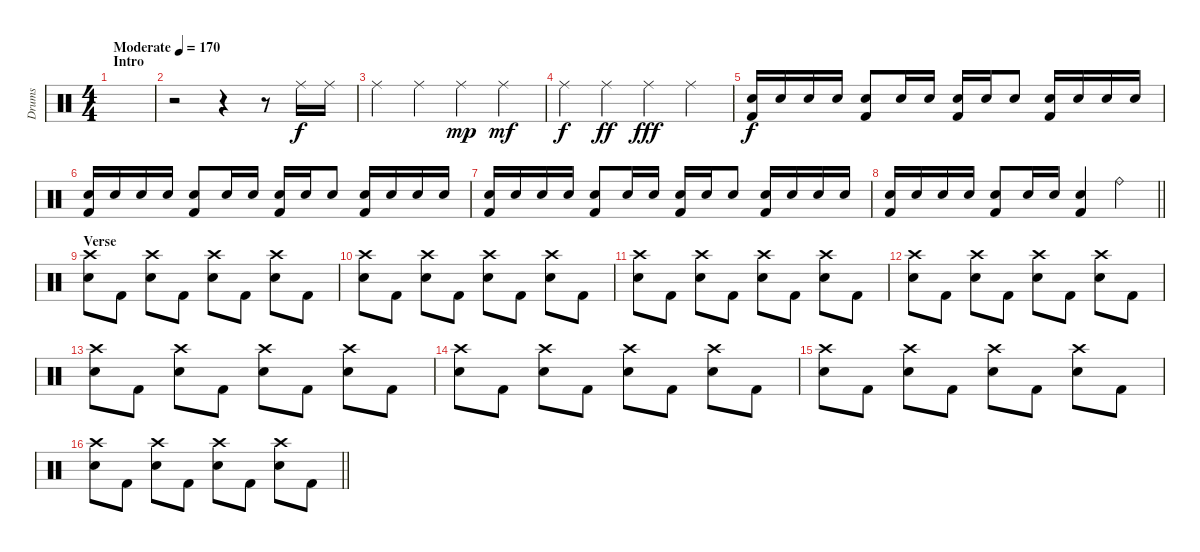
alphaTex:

\track ("Drums" "Drums") {instrument percussion}
\staff {score}
\articulation defaults
\ts (4 4)
\section ("" "Intro")
\tempo (170 "Moderate")
\clef neutral
\ks c
|
r.2 r.4 r.8 "Ride (middle)".16 "Ride (middle)".16 |
"Ride (middle)".4 "Ride (middle)".4 "Ride (middle)".4{dy mp} "Ride (middle)".4{dy mf} |
"Ride (middle)".4{dy f} "Ride (middle)".4{dy ff} "Ride (middle)".4{dy fff} "Ride (middle)".4 |
("Electric Snare (hit)" "Kick (hit) 2").16{dy f} "Electric Snare (hit)".16 "Electric Snare (hit)".16 "Electric Snare (hit)".16 ("Electric Snare (hit)" "Kick (hit) 2").8 "Electric Snare (hit)".16 "Electric Snare (hit)".16 ("Electric Snare (hit)" "Kick (hit) 2").16 "Electric Snare (hit)".16 "Electric Snare (hit)".8 ("Electric Snare (hit)" "Kick (hit) 2").16 "Electric Snare (hit)".16 "Electric Snare (hit)".16 "Electric Snare (hit)".16 |
("Electric Snare (hit)" "Kick (hit) 2").16 "Electric Snare (hit)".16 "Electric Snare (hit)".16 "Electric Snare (hit)".16 ("Electric Snare (hit)" "Kick (hit) 2").8 "Electric Snare (hit)".16 "Electric Snare (hit)".16 ("Electric Snare (hit)" "Kick (hit) 2").16 "Electric Snare (hit)".16 "Electric Snare (hit)".8 ("Electric Snare (hit)" "Kick (hit) 2").16 "Electric Snare (hit)".16 "Electric Snare (hit)".16 "Electric Snare (hit)".16 |
("Electric Snare (hit)" "Kick (hit) 2").16 "Electric Snare (hit)".16 "Electric Snare (hit)".16 "Electric Snare (hit)".16 ("Electric Snare (hit)" "Kick (hit) 2").8 "Electric Snare (hit)".16 "Electric Snare (hit)".16 ("Electric Snare (hit)" "Kick (hit) 2").16 "Electric Snare (hit)".16 "Electric Snare (hit)".8 ("Electric Snare (hit)" "Kick (hit) 2").16 "Electric Snare (hit)".16 "Electric Snare (hit)".16 "Electric Snare (hit)".16 |
\barLineRight lightlight
("Electric Snare (hit)" "Kick (hit) 2").16 "Electric Snare (hit)".16 "Electric Snare (hit)".16 "Electric Snare (hit)".16 ("Electric Snare (hit)" "Kick (hit) 2").8 "Electric Snare (hit)".16 "Electric Snare (hit)".16 ("Electric Snare (hit)" "Kick (hit) 2").4 "Ride (bell)".4 |
\section ("" "Verse")
("Electric Snare (hit)" "Crash high (hit)").8 "Kick (hit) 2".8 ("Electric Snare (hit)" "Crash high (hit)").8 "Kick (hit) 2".8 ("Electric Snare (hit)" "Crash high (hit)").8 "Kick (hit) 2".8 ("Electric Snare (hit)" "Crash high (hit)").8 "Kick (hit) 2".8 |
("Electric Snare (hit)" "Crash high (hit)").8 "Kick (hit) 2".8 ("Electric Snare (hit)" "Crash high (hit)").8 "Kick (hit) 2".8 ("Electric Snare (hit)" "Crash high (hit)").8 "Kick (hit) 2".8 ("Electric Snare (hit)" "Crash high (hit)").8 "Kick (hit) 2".8 |
("Electric Snare (hit)" "Crash high (hit)").8 "Kick (hit) 2".8 ("Electric Snare (hit)" "Crash high (hit)").8 "Kick (hit) 2".8 ("Electric Snare (hit)" "Crash high (hit)").8 "Kick (hit) 2".8 ("Electric Snare (hit)" "Crash high (hit)").8 "Kick (hit) 2".8 |
("Electric Snare (hit)" "Crash high (hit)").8 "Kick (hit) 2".8 ("Electric Snare (hit)" "Crash high (hit)").8 "Kick (hit) 2".8 ("Electric Snare (hit)" "Crash high (hit)").8 "Kick (hit) 2".8 ("Electric Snare (hit)" "Crash high (hit)").8 "Kick (hit) 2".8 |
("Electric Snare (hit)" "Crash high (hit)").8 "Kick (hit) 2".8 ("Electric Snare (hit)" "Crash high (hit)").8 "Kick (hit) 2".8 ("Electric Snare (hit)" "Crash high (hit)").8 "Kick (hit) 2".8 ("Electric Snare (hit)" "Crash high (hit)").8 "Kick (hit) 2".8 |
("Electric Snare (hit)" "Crash high (hit)").8 "Kick (hit) 2".8 ("Electric Snare (hit)" "Crash high (hit)").8 "Kick (hit) 2".8 ("Electric Snare (hit)" "Crash high (hit)").8 "Kick (hit) 2".8 ("Electric Snare (hit)" "Crash high (hit)").8 "Kick (hit) 2".8 |
("Electric Snare (hit)" "Crash high (hit)").8 "Kick (hit) 2".8 ("Electric Snare (hit)" "Crash high (hit)").8 "Kick (hit) 2".8 ("Electric Snare (hit)" "Crash high (hit)").8 "Kick (hit) 2".8 ("Electric Snare (hit)" "Crash high (hit)").8 "Kick (hit) 2".8 |
\barLineRight lightlight
("Electric Snare (hit)" "Crash high (hit)").8 "Kick (hit) 2".8 ("Electric Snare (hit)" "Crash high (hit)").8 "Kick (hit) 2".8 ("Electric Snare (hit)" "Crash high (hit)").8 "Kick (hit) 2".8 ("Electric Snare (hit)" "Crash high (hit)").8 "Kick (hit) 2".8
